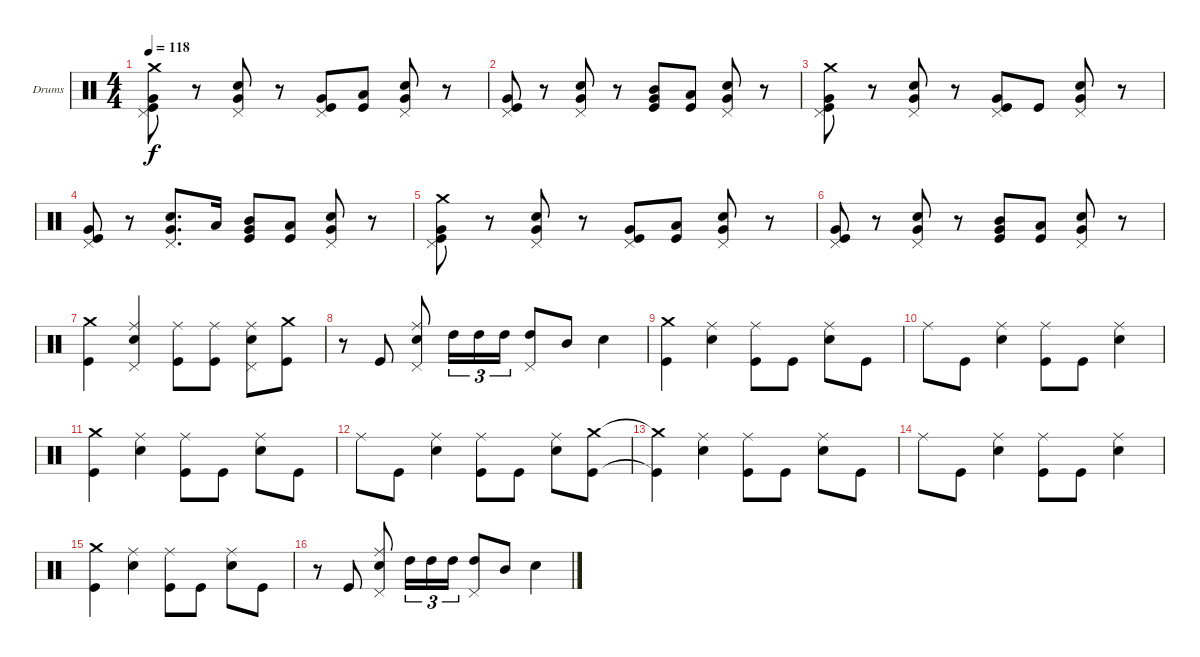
\bracketExtendMode groupsimilarinstruments
\firstSystemTrackNameOrientation horizontal
\otherSystemsTrackNameOrientation horizontal
\track ("Drumkit" "Drums") {instrument percussion}
\staff {score}
\articulation defaults
\ts (4 4)
\tempo 118
\clef neutral
\ks c
("Crash medium (hit)" "Kick (hit)" "Very Low Tom (hit)" "Pedal Hi-Hat (hit)").8{dy f} r.8 ("Snare (hit) 2" "Very Low Tom (hit)" "Pedal Hi-Hat (hit)").8 r.8 ("Kick (hit)" "Very Low Tom (hit)" "Pedal Hi-Hat (hit)").8 ("Kick (hit)" "Low Tom (hit)").8 ("Snare (hit) 2" "Very Low Tom (hit)" "Pedal Hi-Hat (hit)").8 r.8 |
("Kick (hit)" "Very Low Tom (hit)" "Pedal Hi-Hat (hit)").8 r.8 ("Snare (hit) 2" "Very Low Tom (hit)" "Pedal Hi-Hat (hit)").8 r.8 ("Kick (hit)" "Very Low Tom (hit)" "Mid Tom (hit)").8 ("Kick (hit)" "Low Tom (hit)").8 ("Snare (hit) 2" "Very Low Tom (hit)" "Pedal Hi-Hat (hit)").8 r.8 |
("Crash medium (hit)" "Kick (hit)" "Very Low Tom (hit)" "Pedal Hi-Hat (hit)").8 r.8 ("Snare (hit) 2" "Very Low Tom (hit)" "Pedal Hi-Hat (hit)").8 r.8 ("Kick (hit)" "Very Low Tom (hit)" "Pedal Hi-Hat (hit)").8 "Kick (hit)".8 ("Snare (hit) 2" "Very Low Tom (hit)" "Pedal Hi-Hat (hit)").8 r.8 |
("Kick (hit)" "Very Low Tom (hit)" "Pedal Hi-Hat (hit)").8 r.8 ("Snare (hit) 2" "Very Low Tom (hit)" "Pedal Hi-Hat (hit)").8{d} "Low Tom (hit)".16 ("Kick (hit)" "Very Low Tom (hit)" "Mid Tom (hit)").8 ("Kick (hit)" "Low Tom (hit)").8 ("Snare (hit) 2" "Very Low Tom (hit)" "Pedal Hi-Hat (hit)").8 r.8 |
("Crash medium (hit)" "Kick (hit)" "Very Low Tom (hit)" "Pedal Hi-Hat (hit)").8 r.8 ("Snare (hit) 2" "Very Low Tom (hit)" "Pedal Hi-Hat (hit)").8 r.8 ("Kick (hit)" "Very Low Tom (hit)" "Pedal Hi-Hat (hit)").8 ("Kick (hit)" "Low Tom (hit)").8 ("Snare (hit) 2" "Very Low Tom (hit)" "Pedal Hi-Hat (hit)").8 r.8 |
("Kick (hit)" "Very Low Tom (hit)" "Pedal Hi-Hat (hit)").8 r.8 ("Snare (hit) 2" "Very Low Tom (hit)" "Pedal Hi-Hat (hit)").8 r.8 ("Kick (hit)" "Very Low Tom (hit)" "Mid Tom (hit)").8 ("Kick (hit)" "Low Tom (hit)").8 ("Snare (hit) 2" "Very Low Tom (hit)" "Pedal Hi-Hat (hit)").8 r.8 |
("Crash medium (hit)" "Kick (hit)").4 ("Ride (middle)" "Snare (hit) 2" "Pedal Hi-Hat (hit)").4 ("Ride (middle)" "Kick (hit)").8 ("Ride (middle)" "Kick (hit)").8 ("Ride (middle)" "Snare (hit) 2" "Pedal Hi-Hat (hit)").8 ("Crash medium (hit)" "Kick (hit)").8 |
r.8 "Kick (hit)".8 ("Ride (middle)" "Snare (hit) 2" "Pedal Hi-Hat (hit)").8 "High Tom (hit)".16{tu (3 2)} "High Tom (hit)".16{tu (3 2)} "High Tom (hit)".16{tu (3 2)} ("High Tom (hit)" "Pedal Hi-Hat (hit)").8 "Mid Tom (hit)".8 "Snare (hit) 2".4 |
("Crash medium (hit)" "Kick (hit)").4 ("Ride (middle)" "Snare (hit) 2").4 ("Ride (middle)" "Kick (hit)").8 "Kick (hit)".8 ("Ride (middle)" "Snare (hit) 2").8 "Kick (hit)".8 |
"Ride (middle)".8 "Kick (hit)".8 ("Ride (middle)" "Snare (hit) 2").4 ("Ride (middle)" "Kick (hit)").8 "Kick (hit)".8 ("Ride (middle)" "Snare (hit) 2").4 |
("Crash medium (hit)" "Kick (hit)").4 ("Ride (middle)" "Snare (hit) 2").4 ("Ride (middle)" "Kick (hit)").8 "Kick (hit)".8 ("Ride (middle)" "Snare (hit) 2").8 "Kick (hit)".8 |
"Ride (middle)".8 "Kick (hit)".8 ("Ride (middle)" "Snare (hit) 2").4 ("Ride (middle)" "Kick (hit)").8 "Kick (hit)".8 ("Ride (middle)" "Snare (hit) 2").8 ("Crash medium (hit)" "Kick (hit)").8 |
("Crash medium (hit)"{t} "Kick (hit)"{t}).4 ("Ride (middle)" "Snare (hit) 2").4 ("Ride (middle)" "Kick (hit)").8 "Kick (hit)".8 ("Ride (middle)" "Snare (hit) 2").8 "Kick (hit)".8 |
"Ride (middle)".8 "Kick (hit)".8 ("Ride (middle)" "Snare (hit) 2").4 ("Ride (middle)" "Kick (hit)").8 "Kick (hit)".8 ("Ride (middle)" "Snare (hit) 2").4 |
("Crash medium (hit)" "Kick (hit)").4 ("Ride (middle)" "Snare (hit) 2").4 ("Ride (middle)" "Kick (hit)").8 "Kick (hit)".8 ("Ride (middle)" "Snare (hit) 2").8 "Kick (hit)".8 |
r.8 "Kick (hit)".8 ("Ride (middle)" "Snare (hit) 2" "Pedal Hi-Hat (hit)").8 "High Tom (hit)".16{tu (3 2)} "High Tom (hit)".16{tu (3 2)} "High Tom (hit)".16{tu (3 2)} ("High Tom (hit)" "Pedal Hi-Hat (hit)").8 "Mid Tom (hit)".8 "Snare (hit) 2".4
